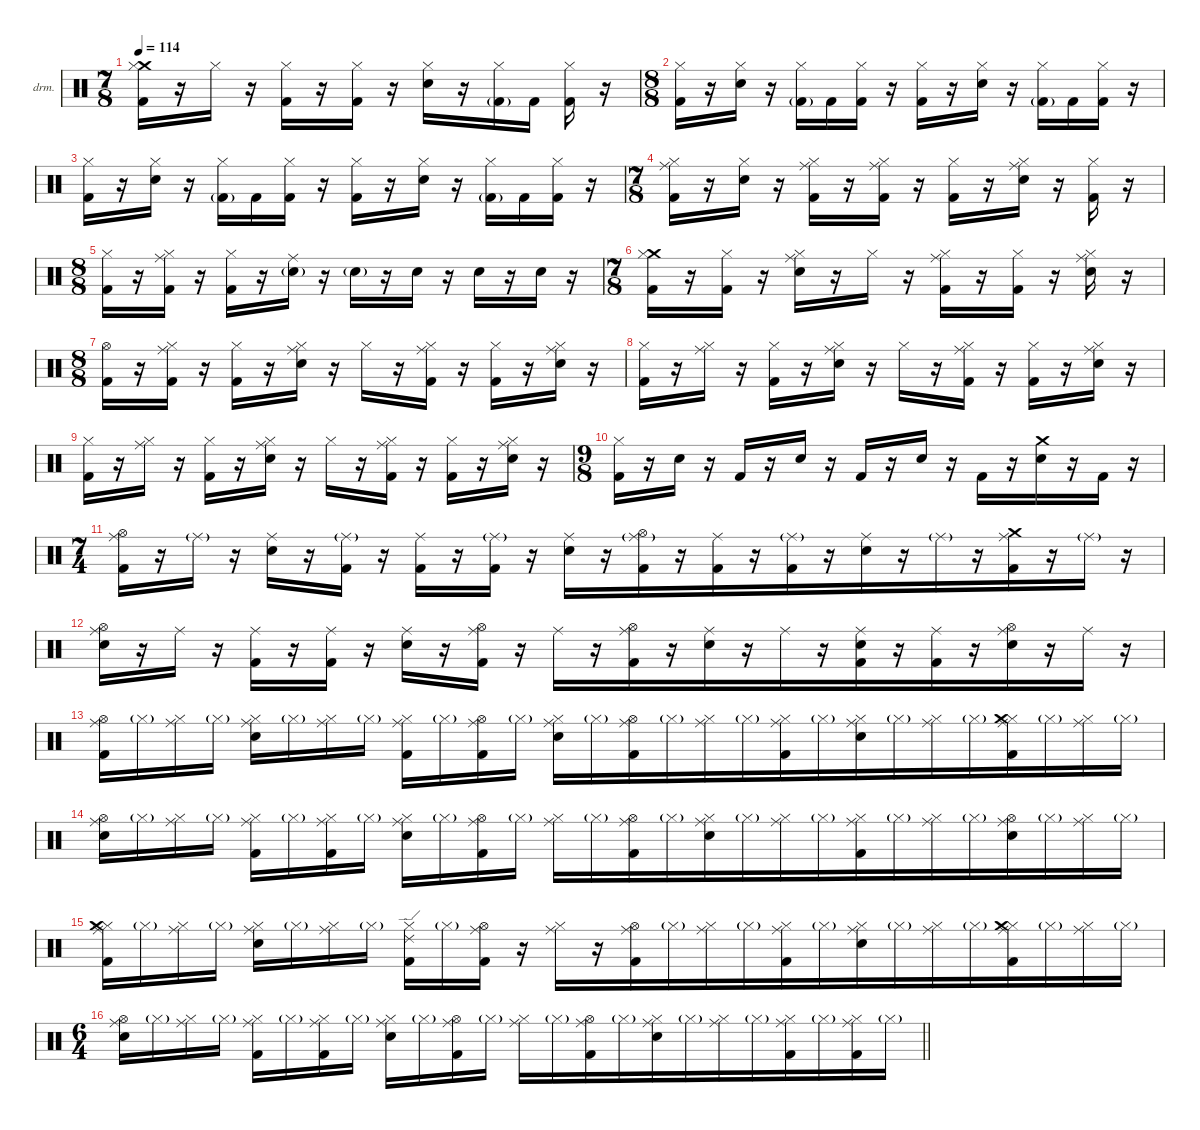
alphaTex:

\defaultSystemsLayout 4
\hideDynamics
\bracketExtendMode nobrackets
\firstSystemTrackNameOrientation horizontal
\otherSystemsTrackNameOrientation horizontal
\track ("Drums" "drm.") {instrument percussion}
\staff {score}
\articulation defaults
\ts (7 8)
\beaming (8 2 2 2 2)
\tempo 114
\clef neutral
\ks c
("Crash medium (hit)" "Hi-Hat (closed)" "Kick (hit) 2").16{dy f} r.16 "Hi-Hat (closed)".16 r.16 ("Hi-Hat (closed)" "Kick (hit) 2").16 r.16 ("Hi-Hat (closed)" "Kick (hit) 2").16 r.16 ("Hi-Hat (closed)" "Snare (hit) 2").16 r.16 ("Hi-Hat (closed)" "Kick (hit) 2"{g}).16 "Kick (hit) 2".16 ("Hi-Hat (closed)" "Kick (hit) 2").16 r.16 |
\ts (8 8)
\beaming (8 2 2 2 2)
("Hi-Hat (closed)" "Kick (hit) 2").16 r.16 ("Hi-Hat (closed)" "Snare (hit) 2").16 r.16 ("Hi-Hat (closed)" "Kick (hit) 2"{g}).16 "Kick (hit) 2".16 ("Hi-Hat (closed)" "Kick (hit) 2").16 r.16 ("Hi-Hat (closed)" "Kick (hit) 2").16 r.16 ("Hi-Hat (closed)" "Snare (hit) 2").16 r.16 ("Hi-Hat (closed)" "Kick (hit) 2"{g}).16 "Kick (hit) 2".16 ("Hi-Hat (closed)" "Kick (hit) 2").16 r.16 |
("Hi-Hat (closed)" "Kick (hit) 2").16 r.16 ("Hi-Hat (closed)" "Snare (hit) 2").16 r.16 ("Hi-Hat (closed)" "Kick (hit) 2"{g}).16 "Kick (hit) 2".16 ("Hi-Hat (closed)" "Kick (hit) 2").16 r.16 ("Hi-Hat (closed)" "Kick (hit) 2").16 r.16 ("Hi-Hat (closed)" "Snare (hit) 2").16 r.16 ("Hi-Hat (closed)" "Kick (hit) 2"{g}).16 "Kick (hit) 2".16 ("Hi-Hat (closed)" "Kick (hit) 2").16 r.16 |
\ts (7 8)
\beaming (8 2 2 2 2)
("Ride (middle)" "Hi-Hat (closed)" "Kick (hit) 2").16 r.16 ("Hi-Hat (closed)" "Snare (hit) 2").16 r.16 ("Ride (middle)" "Hi-Hat (closed)" "Kick (hit) 2").16 r.16 ("Ride (middle)" "Hi-Hat (closed)" "Kick (hit) 2").16 r.16 ("Hi-Hat (closed)" "Kick (hit) 2").16 r.16 ("Ride (middle)" "Hi-Hat (closed)" "Snare (hit) 2").16 r.16 ("Hi-Hat (closed)" "Kick (hit) 2").16 r.16 |
\ts (8 8)
\beaming (8 2 2 2 2)
("Hi-Hat (closed)" "Kick (hit) 2").16 r.16 ("Ride (middle)" "Hi-Hat (closed)" "Kick (hit) 2").16 r.16 ("Hi-Hat (closed)" "Kick (hit) 2").16 r.16 ("Ride (middle)" "Snare (hit) 2"{g}).16 r.16 "Snare (hit) 2"{g}.16{dy mf} r.16 "Snare (hit) 2".16{dy f} r.16 "Snare (hit) 2".16 r.16 "Snare (hit) 2".16 r.16 |
\ts (7 8)
\beaming (8 2 2 2 2)
("Crash medium (hit)" "Hi-Hat (closed)" "Kick (hit) 2").16 r.16 ("Hi-Hat (closed)" "Kick (hit) 2").16 r.16 ("Ride (middle)" "Hi-Hat (closed)" "Snare (hit) 2").16 r.16 "Hi-Hat (closed)".16 r.16 ("Ride (middle)" "Hi-Hat (closed)" "Kick (hit) 2").16 r.16 ("Hi-Hat (closed)" "Kick (hit) 2").16 r.16 ("Ride (middle)" "Hi-Hat (closed)" "Snare (hit) 2").16 r.16 |
\ts (8 8)
\beaming (8 2 2 2 2)
("Hi-Hat (open)" "Kick (hit) 2").16 r.16 ("Ride (middle)" "Hi-Hat (closed)" "Kick (hit) 2").16 r.16 ("Hi-Hat (closed)" "Kick (hit) 2").16 r.16 ("Ride (middle)" "Hi-Hat (closed)" "Snare (hit) 2").16 r.16 "Hi-Hat (closed)".16 r.16 ("Ride (middle)" "Hi-Hat (closed)" "Kick (hit) 2").16 r.16 ("Hi-Hat (closed)" "Kick (hit) 2").16 r.16 ("Ride (middle)" "Hi-Hat (closed)" "Snare (hit) 2").16 r.16 |
("Hi-Hat (closed)" "Kick (hit) 2").16 r.16 ("Ride (middle)" "Hi-Hat (closed)").16 r.16 ("Hi-Hat (closed)" "Kick (hit) 2").16 r.16 ("Ride (middle)" "Hi-Hat (closed)" "Snare (hit) 2").16 r.16 "Hi-Hat (closed)".16 r.16 ("Ride (middle)" "Hi-Hat (closed)" "Kick (hit) 2").16 r.16 ("Hi-Hat (closed)" "Kick (hit) 2").16 r.16 ("Ride (middle)" "Hi-Hat (closed)" "Snare (hit) 2").16 r.16 |
("Hi-Hat (closed)" "Kick (hit) 2").16 r.16 ("Ride (middle)" "Hi-Hat (closed)").16 r.16 ("Hi-Hat (closed)" "Kick (hit) 2").16 r.16 ("Ride (middle)" "Hi-Hat (closed)" "Snare (hit) 2").16 r.16 "Hi-Hat (closed)".16 r.16 ("Ride (middle)" "Hi-Hat (closed)" "Kick (hit) 2").16 r.16 ("Hi-Hat (closed)" "Kick (hit) 2").16 r.16 ("Ride (middle)" "Hi-Hat (closed)" "Snare (hit) 2").16 r.16 |
\ts (9 8)
\beaming (8 2 2 2 3)
("Hi-Hat (closed)" "Kick (hit) 2").16 r.16 "Snare (hit) 2".16 r.16 "Kick (hit) 2".16 r.16 "Snare (hit) 2".16 r.16 "Kick (hit) 2".16 r.16 "Snare (hit) 2".16 r.16 "Kick (hit) 2".16 r.16 ("Crash medium (hit)" "Snare (hit) 2").16 r.16 "Kick (hit) 2".16 r.16 |
\ts (7 4)
\beaming (8 2 2 2 8)
("Ride (middle)" "Hi-Hat (open)" "Kick (hit) 2").16 r.16 "Ride (middle)"{g}.16{dy mf} r.16 ("Ride (middle)" "Snare (hit) 2").16{dy f} r.16 ("Ride (middle)"{g} "Kick (hit) 2").16 r.16 ("Ride (middle)" "Kick (hit) 2").16 r.16 ("Ride (middle)"{g} "Kick (hit) 2").16 r.16 ("Ride (middle)" "Snare (hit) 2").16 r.16 ("Ride (middle)"{g} "Hi-Hat (open)" "Kick (hit) 2").16 r.16 ("Ride (middle)" "Kick (hit) 2").16 r.16 ("Ride (middle)"{g} "Kick (hit) 2").16 r.16 ("Ride (middle)" "Snare (hit) 2").16 r.16 "Ride (middle)"{g}.16{dy mf} r.16 ("Ride (middle)" "Crash medium (hit)" "Kick (hit) 2").16{dy f} r.16 "Ride (middle)"{g}.16{dy mf} r.16 |
("Ride (middle)" "Hi-Hat (open)" "Snare (hit) 2").16{dy f} r.16 "Ride (middle)".16 r.16 ("Ride (middle)" "Kick (hit) 2").16 r.16 ("Ride (middle)" "Kick (hit) 2").16 r.16 ("Ride (middle)" "Snare (hit) 2").16 r.16 ("Ride (middle)" "Hi-Hat (open)" "Kick (hit) 2").16 r.16 "Ride (middle)".16 r.16 ("Ride (middle)" "Hi-Hat (open)" "Kick (hit) 2").16 r.16 ("Ride (middle)" "Snare (hit) 2").16 r.16 "Ride (middle)".16 r.16 ("Ride (middle)" "Snare (hit) 2" "Kick (hit) 2").16 r.16 ("Ride (middle)" "Kick (hit) 2").16 r.16 ("Ride (middle)" "Hi-Hat (open)" "Snare (hit) 2").16 r.16 "Ride (middle)".16 r.16 |
("Ride (middle)" "Hi-Hat (open)" "Kick (hit) 2").16 "Hi-Hat (closed)"{g}.16{dy mf} ("Ride (middle)" "Hi-Hat (closed)").16{dy f} "Hi-Hat (closed)"{g}.16{dy mf} ("Ride (middle)" "Hi-Hat (closed)" "Snare (hit) 2").16{dy f} "Hi-Hat (closed)"{g}.16{dy mf} ("Ride (middle)" "Hi-Hat (closed)").16{dy f} "Hi-Hat (closed)"{g}.16{dy mf} ("Ride (middle)" "Hi-Hat (closed)" "Kick (hit) 2").16{dy f} "Hi-Hat (closed)"{g}.16{dy mf} ("Ride (middle)" "Hi-Hat (open)" "Kick (hit) 2").16{dy f} "Hi-Hat (closed)"{g}.16{dy mf} ("Ride (middle)" "Hi-Hat (closed)" "Snare (hit) 2").16{dy f} "Hi-Hat (closed)"{g}.16{dy mf} ("Ride (middle)" "Hi-Hat (open)" "Kick (hit) 2").16{dy f} "Hi-Hat (closed)"{g}.16{dy mf} ("Ride (middle)" "Hi-Hat (closed)").16{dy f} "Hi-Hat (closed)"{g}.16{dy mf} ("Ride (middle)" "Hi-Hat (closed)" "Kick (hit) 2").16{dy f} "Hi-Hat (closed)"{g}.16{dy mf} ("Ride (middle)" "Hi-Hat (closed)" "Snare (hit) 2").16{dy f} "Hi-Hat (closed)"{g}.16{dy mf} ("Ride (middle)" "Hi-Hat (closed)").16{dy f} "Hi-Hat (closed)"{g}.16{dy mf} ("Ride (middle)" "Hi-Hat (closed)" "Crash medium (hit)" "Kick (hit) 2").16{dy f} "Hi-Hat (closed)"{g}.16{dy mf} ("Ride (middle)" "Hi-Hat (closed)").16{dy f} "Hi-Hat (closed)"{g}.16{dy mf} |
("Ride (middle)" "Hi-Hat (open)" "Snare (hit) 2").16{dy f} "Hi-Hat (closed)"{g}.16{dy mf} ("Ride (middle)" "Hi-Hat (closed)").16{dy f} "Hi-Hat (closed)"{g}.16{dy mf} ("Ride (middle)" "Hi-Hat (closed)" "Kick (hit) 2").16{dy f} "Hi-Hat (closed)"{g}.16{dy mf} ("Ride (middle)" "Hi-Hat (closed)" "Kick (hit) 2").16{dy f} "Hi-Hat (closed)"{g}.16{dy mf} ("Ride (middle)" "Hi-Hat (closed)" "Snare (hit) 2").16{dy f} "Hi-Hat (closed)"{g}.16{dy mf} ("Ride (middle)" "Hi-Hat (open)" "Kick (hit) 2").16{dy f} "Hi-Hat (closed)"{g}.16{dy mf} ("Ride (middle)" "Hi-Hat (closed)").16{dy f} "Hi-Hat (closed)"{g}.16{dy mf} ("Ride (middle)" "Hi-Hat (open)" "Kick (hit) 2").16{dy f} "Hi-Hat (closed)"{g}.16{dy mf} ("Ride (middle)" "Hi-Hat (closed)" "Snare (hit) 2").16{dy f} "Hi-Hat (closed)"{g}.16{dy mf} ("Ride (middle)" "Hi-Hat (closed)").16{dy f} "Hi-Hat (closed)"{g}.16{dy mf} ("Ride (middle)" "Hi-Hat (closed)" "Kick (hit) 2").16{dy f} "Hi-Hat (closed)"{g}.16{dy mf} ("Ride (middle)" "Hi-Hat (closed)").16{dy f} "Hi-Hat (closed)"{g}.16{dy mf} ("Ride (middle)" "Hi-Hat (open)" "Snare (hit) 2").16{dy f} "Hi-Hat (closed)"{g}.16{dy mf} ("Ride (middle)" "Hi-Hat (closed)").16{dy f} "Hi-Hat (closed)"{g}.16{dy mf} |
("Ride (middle)" "Hi-Hat (closed)" "Crash medium (hit)" "Kick (hit) 2").16{dy f} "Hi-Hat (closed)"{g}.16{dy mf} ("Ride (middle)" "Hi-Hat (closed)").16{dy f} "Hi-Hat (closed)"{g}.16{dy mf} ("Ride (middle)" "Hi-Hat (closed)" "Snare (hit) 2").16{dy f} "Hi-Hat (closed)"{g}.16{dy mf} ("Ride (middle)" "Hi-Hat (closed)").16{dy f} "Hi-Hat (closed)"{g}.16{dy mf} ("Ride (edge) 2" "Hi-Hat (closed)" "Kick (hit) 2").16{dy f} "Hi-Hat (closed)"{g}.16{dy mf} ("Ride (middle)" "Hi-Hat (open)" "Kick (hit) 2").16{dy f} r.16 ("Ride (middle)" "Hi-Hat (closed)").16 r.16 ("Ride (middle)" "Hi-Hat (open)" "Kick (hit) 2").16 "Hi-Hat (closed)"{g}.16{dy mf} ("Ride (middle)" "Hi-Hat (closed)").16{dy f} "Hi-Hat (closed)"{g}.16{dy mf} ("Ride (middle)" "Hi-Hat (closed)" "Kick (hit) 2").16{dy f} "Hi-Hat (closed)"{g}.16{dy mf} ("Ride (middle)" "Hi-Hat (closed)" "Snare (hit) 2").16{dy f} "Hi-Hat (closed)"{g}.16{dy mf} ("Ride (middle)" "Hi-Hat (closed)").16{dy f} "Hi-Hat (closed)"{g}.16{dy mf} ("Ride (middle)" "Hi-Hat (closed)" "Crash medium (hit)" "Kick (hit) 2").16{dy f} "Hi-Hat (closed)"{g}.16{dy mf} ("Ride (middle)" "Hi-Hat (closed)").16{dy f} "Hi-Hat (closed)"{g}.16{dy mf} |
\ts (6 4)
\beaming (8 2 2 2 6)
\barLineRight lightlight
("Ride (middle)" "Hi-Hat (open)" "Snare (hit) 2").16{dy f} "Hi-Hat (closed)"{g}.16{dy mf} ("Ride (middle)" "Hi-Hat (closed)").16{dy f} "Hi-Hat (closed)"{g}.16{dy mf} ("Ride (middle)" "Hi-Hat (closed)" "Kick (hit) 2").16{dy f} "Hi-Hat (closed)"{g}.16{dy mf} ("Ride (middle)" "Hi-Hat (closed)" "Kick (hit) 2").16{dy f} "Hi-Hat (closed)"{g}.16{dy mf} ("Ride (middle)" "Hi-Hat (closed)" "Snare (hit) 2").16{dy f} "Hi-Hat (closed)"{g}.16{dy mf} ("Ride (middle)" "Hi-Hat (open)" "Kick (hit) 2").16{dy f} "Hi-Hat (closed)"{g}.16{dy mf} ("Ride (middle)" "Hi-Hat (closed)").16{dy f} "Hi-Hat (closed)"{g}.16{dy mf} ("Ride (middle)" "Hi-Hat (open)" "Kick (hit) 2").16{dy f} "Hi-Hat (closed)"{g}.16{dy mf} ("Ride (middle)" "Hi-Hat (closed)" "Snare (hit) 2").16{dy f} "Hi-Hat (closed)"{g}.16{dy mf} ("Ride (middle)" "Hi-Hat (closed)").16{dy f} "Hi-Hat (closed)"{g}.16{dy mf} ("Ride (middle)" "Hi-Hat (closed)" "Kick (hit) 2").16{dy f} "Hi-Hat (closed)"{g}.16{dy mf} ("Ride (middle)" "Hi-Hat (closed)" "Kick (hit) 2").16{dy f} "Hi-Hat (closed)"{g}.16{dy mf}
